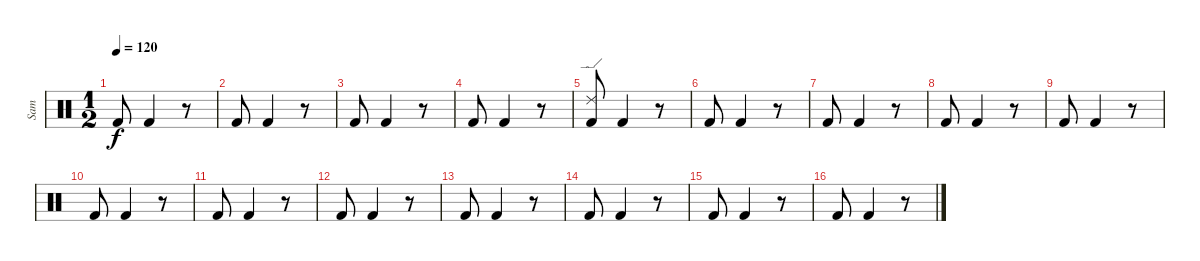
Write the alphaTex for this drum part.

\track ("Sam" "Sam") {instrument percussion}
\staff {score}
\articulation defaults
\ts (1 2)
\tempo 120
\clef neutral
\ks c "Kick (hit) 2".8{dy f} "Kick (hit) 2".4
r.8 |
"Kick (hit) 2".8 "Kick (hit) 2".4 r.8 |
"Kick (hit) 2".8 "Kick (hit) 2".4 r.8 |
"Kick (hit) 2".8 "Kick (hit) 2".4 r.8 |
("Ride (edge) 2" "Kick (hit) 2").8 "Kick (hit) 2".4 r.8 |
"Kick (hit) 2".8 "Kick (hit) 2".4 r.8 |
"Kick (hit) 2".8 "Kick (hit) 2".4 r.8 |
"Kick (hit) 2".8 "Kick (hit) 2".4 r.8 |
"Kick (hit) 2".8 "Kick (hit) 2".4 r.8 |
"Kick (hit) 2".8 "Kick (hit) 2".4 r.8 |
"Kick (hit) 2".8 "Kick (hit) 2".4 r.8 |
"Kick (hit) 2".8 "Kick (hit) 2".4 r.8 |
"Kick (hit) 2".8 "Kick (hit) 2".4 r.8 |
"Kick (hit) 2".8 "Kick (hit) 2".4 r.8 |
"Kick (hit) 2".8 "Kick (hit) 2".4 r.8 |
"Kick (hit) 2".8 "Kick (hit) 2".4 r.8
